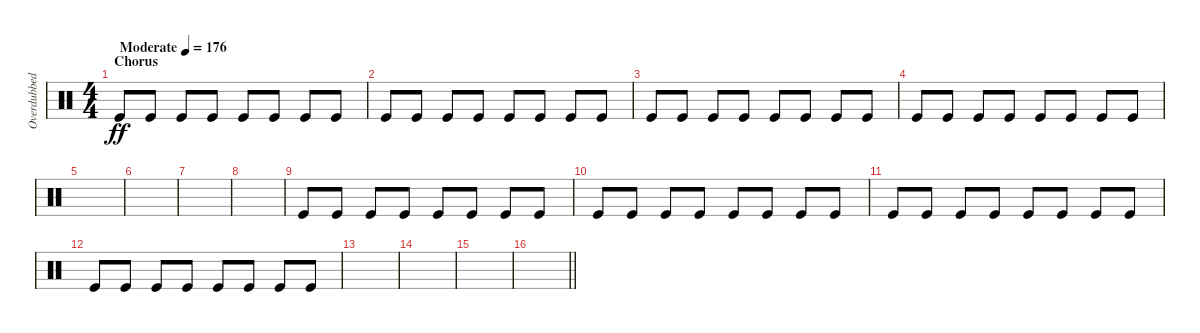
\track ("Overdubbed bass drum" "Overdubbed") {instrument percussion}
\staff {score}
\articulation defaults
\ts (4 4)
\section ("" "Chorus")
\tempo (176 "Moderate")
\clef neutral
\ks c "Kick (hit)".8{dy ff} "Kick (hit)".8 "Kick (hit)".8 "Kick (hit)".8 "Kick (hit)".8 "Kick (hit)".8 "Kick (hit)".8 "Kick (hit)".8
|
"Kick (hit)".8 "Kick (hit)".8 "Kick (hit)".8 "Kick (hit)".8 "Kick (hit)".8 "Kick (hit)".8 "Kick (hit)".8 "Kick (hit)".8 |
"Kick (hit)".8 "Kick (hit)".8 "Kick (hit)".8 "Kick (hit)".8 "Kick (hit)".8 "Kick (hit)".8 "Kick (hit)".8 "Kick (hit)".8 |
"Kick (hit)".8 "Kick (hit)".8 "Kick (hit)".8 "Kick (hit)".8 "Kick (hit)".8 "Kick (hit)".8 "Kick (hit)".8 "Kick (hit)".8 |
|
|
|
|
"Kick (hit)".8 "Kick (hit)".8 "Kick (hit)".8 "Kick (hit)".8 "Kick (hit)".8 "Kick (hit)".8 "Kick (hit)".8 "Kick (hit)".8 |
"Kick (hit)".8 "Kick (hit)".8 "Kick (hit)".8 "Kick (hit)".8 "Kick (hit)".8 "Kick (hit)".8 "Kick (hit)".8 "Kick (hit)".8 |
"Kick (hit)".8 "Kick (hit)".8 "Kick (hit)".8 "Kick (hit)".8 "Kick (hit)".8 "Kick (hit)".8 "Kick (hit)".8 "Kick (hit)".8 |
"Kick (hit)".8 "Kick (hit)".8 "Kick (hit)".8 "Kick (hit)".8 "Kick (hit)".8 "Kick (hit)".8 "Kick (hit)".8 "Kick (hit)".8 |
|
|
|
\barLineRight lightlight
